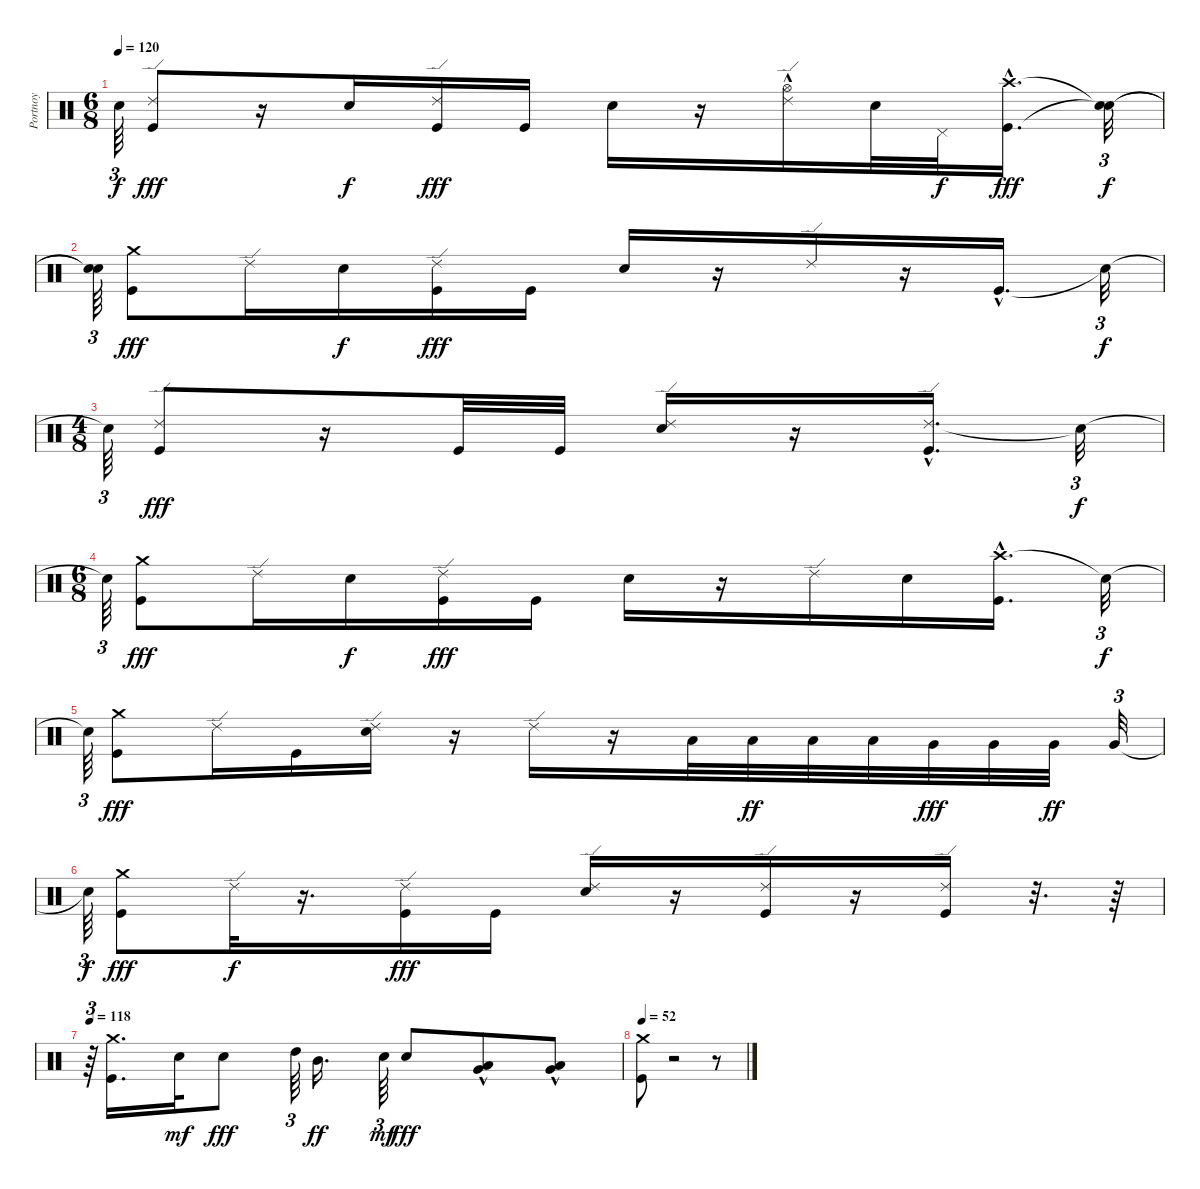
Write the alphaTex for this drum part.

\track ("Portnoy" "Portnoy") {instrument percussion}
\staff {score}
\articulation defaults
\ts (6 8)
\tempo 120
\clef neutral
\ks c "Snare (hit)"{t}.64{tu (3 2) dy f}
("Ride (edge) 2" "Kick (hit)").8{dy fff} r.16 "Snare (hit) 2".16{dy f} ("Ride (edge) 2" "Kick (hit)").16{dy fff} "Kick (hit)".16 "Snare (hit) 2".16 r.16 ("Hi-Hat (open)"{hac} "Ride (edge) 2").16 "Snare (hit) 2".32 "Pedal Hi-Hat (hit)".32{dy f} ("Crash high (hit)"{hac} "Kick (hit)"{hac}).16{d dy fff} ("Snare (hit)"{t} "Snare (hit)"{t}).32{tu (3 2) dy f} |
("Snare (hit)"{t} "Snare (hit)"{t}).64{tu (3 2)} ("Crash medium (hit)" "Kick (hit)").8{dy fff} "Ride (edge) 2".16 "Snare (hit) 2".16{dy f} ("Kick (hit)" "Ride (edge) 2").16{dy fff} "Kick (hit)".16 "Snare (hit) 2".16 r.16 "Ride (edge) 2".16 r.16 "Kick (hit)"{hac}.16{d} "Snare (hit)"{t}.32{tu (3 2) dy f} |
\ts (4 8)
"Snare (hit)"{t}.64{tu (3 2)} ("Ride (edge) 2" "Kick (hit)").8{dy fff} r.16 "Kick (hit)".32 "Kick (hit)".32 ("Snare (hit) 2" "Ride (edge) 2").16 r.16 ("Ride (edge) 2" "Kick (hit)"{hac}).16{d} "Snare (hit)"{t}.32{tu (3 2) dy f} |
\ts (6 8)
"Snare (hit)"{t}.64{tu (3 2)} ("Crash medium (hit)" "Kick (hit)").8{dy fff} "Ride (edge) 2".16 "Snare (hit) 2".16{dy f} ("Ride (edge) 2" "Kick (hit)").16{dy fff} "Kick (hit)".16 "Snare (hit) 2".16 r.16 "Ride (edge) 2".16 "Snare (hit) 2".16 ("Crash high (hit)"{hac} "Kick (hit)").16{d} "Snare (hit)"{t}.32{tu (3 2) dy f} |
"Snare (hit)"{t}.64{tu (3 2)} ("Crash medium (hit)" "Kick (hit)").8{dy fff} "Ride (edge) 2".16 "Kick (hit)".16 ("Ride (edge) 2" "Snare (hit) 2").16 r.16 "Ride (edge) 2".16 r.16 "Low Tom (hit)".32 "Low Tom (hit)".32{dy ff} "Low Tom (hit)".32 "Low Tom (hit)".32 "Very Low Tom (hit)".32{dy fff} "Very Low Tom (hit)".32 "Very Low Tom (hit)".32{dy ff} "Very Low Tom (hit)".32{tu (3 2)} |
"Snare (hit)"{t}.64{tu (3 2) dy f} ("Crash medium (hit)" "Kick (hit)").8{dy fff} "Ride (edge) 2".32{dy f} r.16{d} ("Kick (hit)" "Ride (edge) 2").16{dy fff} "Kick (hit)".16 ("Snare (hit) 2" "Ride (edge) 2").16 r.16 ("Kick (hit)" "Ride (edge) 2").16 r.16 ("Kick (hit)" "Ride (edge) 2").16 r.32{d} r.64 |
\tempo 118
r.64{tu (3 2)} ("Kick (hit)" "Crash medium (hit)").16{d} "Snare (hit) 2".32{dy mf} "Snare (hit) 2".8{dy fff} "High Tom (hit)".64{tu (3 2)} "Mid Tom (hit)".16{d dy ff} "Snare (hit) 2".64{tu (3 2) dy mf} "Snare (hit) 2".8{dy fff} ("Low Tom (hit)" "Very Low Tom (hit)"{hac}).8 ("Very Low Tom (hit)" "Low Floor Tom (hit)"{hac}).8 |
\tempo 52
("Kick (hit)" "Crash medium (hit)").8 r.2 r.8
